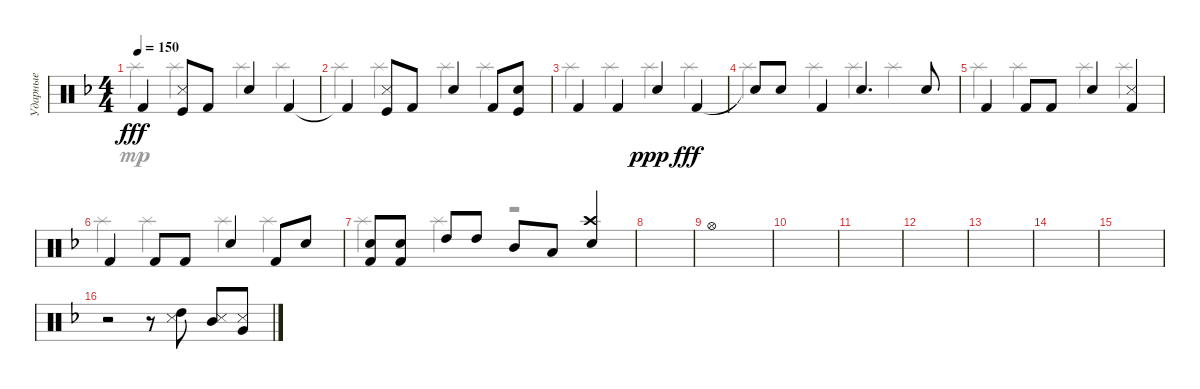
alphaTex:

\track ("Ударные" "Ударные") {instrument percussion}
\staff {score}
\articulation defaults
\voice
\ts (4 4)
\tempo 150
\clef neutral
\ks dminor "Kick (hit) 2".4{dy fff}
("Kick (hit)" "Metronome (hit)").8 "Kick (hit) 2".8 "Snare (hit) 2".4 "Kick (hit) 2".4 |
"Kick (hit) 2"{t}.4 ("Kick (hit)" "Metronome (hit)").8 "Kick (hit) 2".8 "Snare (hit) 2".4 "Kick (hit) 2".8 ("Kick (hit)" "Snare (hit) 2").8 |
"Kick (hit) 2".4 "Kick (hit) 2".4 "Snare (hit) 2".4{dy ppp} "Kick (hit) 2".4{dy fff} |
"Snare (hit) 2"{t}.8 "Snare (hit) 2".8 "Kick (hit) 2".4 "Snare (hit) 2".4{d} "Snare (hit) 2".8 |
"Kick (hit) 2".4 "Kick (hit) 2".8 "Kick (hit) 2".8 "Snare (hit) 2".4 ("Snare (side stick) 3" "Kick (hit) 2").4 |
"Kick (hit) 2".4 "Kick (hit) 2".8 "Kick (hit) 2".8 "Snare (hit) 2".4 "Kick (hit) 2".8 "Snare (hit) 2".8 |
("Kick (hit) 2" "Snare (hit) 2").8 ("Kick (hit) 2" "Snare (hit) 2").8 "High Tom (hit)".8 "High Tom (hit)".8 "Mid Tom (hit)".8 "Low Tom (hit)".8 ("Crash high (hit)" "Snare (hit) 2").4 |
|
"Hi-Hat (open)".1 |
|
|
|
|
|
|
r.2 r.8 ("High Tom (hit)" "Snare (side stick) 3").8 ("Mid Tom (hit)" "Snare (side stick) 3").8 ("Very Low Tom (hit)" "Snare (side stick) 3").8
\voice
\clef neutral
\ottava regular
\simile none
\ks dminor "Splash (hit)".4{dy mp} "Splash (hit)".4 "Splash (hit)".4 "Splash (hit)".4
|
"Splash (hit)".4 "Splash (hit)".4 "Splash (hit)".4 "Splash (hit)".4 |
"Splash (hit)".4 "Splash (hit)".4 "Splash (hit)".4 "Splash (hit)".4 |
"Splash (hit)".4 "Splash (hit)".4 "Splash (hit)".4 "Splash (hit)".4 |
"Splash (hit)".4 "Splash (hit)".4 "Splash (hit)".4 "Splash (hit)".4 |
"Splash (hit)".4 "Splash (hit)".4 "Splash (hit)".4 "Splash (hit)".4 |
"Splash (hit)".4 "Splash (hit)".4 r.2 |
|
|
|
|
|
|
|
|
